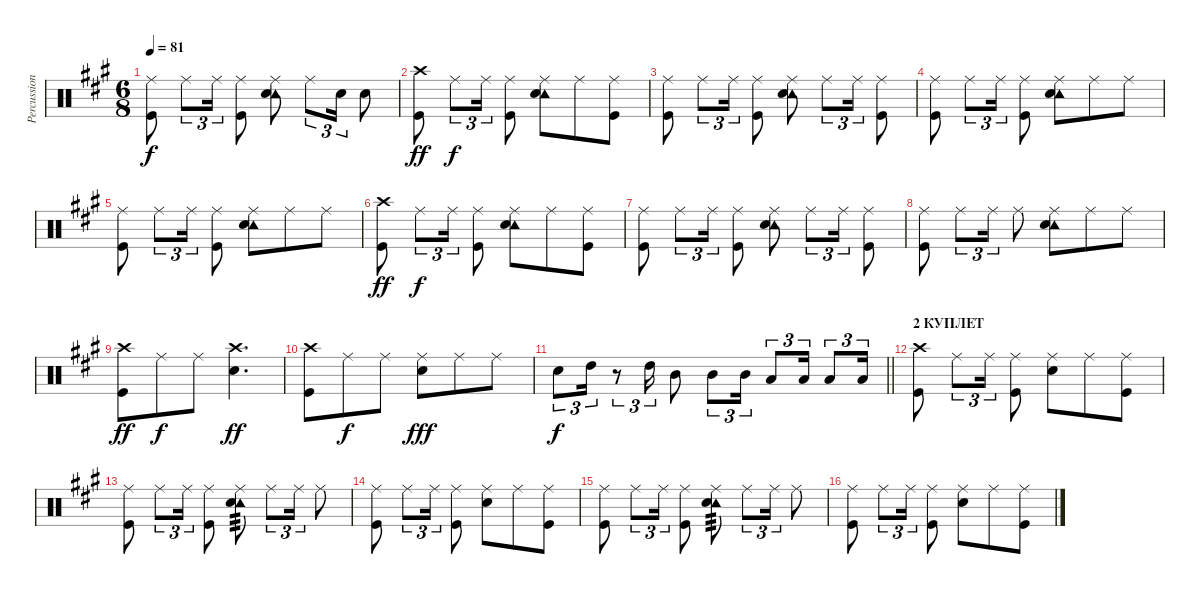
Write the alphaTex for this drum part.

\track ("Percussion" "Percussion") {instrument percussion}
\staff {score}
\articulation defaults
\ts (6 8)
\tempo 81
\clef neutral
\ks a
("Ride (middle)" "Kick (hit)").8{dy f} "Ride (middle)".8{tu (3 2)} "Ride (middle)".16{tu (3 2)} ("Ride (middle)" "Kick (hit)").8 ("Ride (middle)" "Tambourine (hit)" "Snare (hit) 2").8 "Ride (middle)".8{tu (3 2)} "Snare (hit) 2".16{tu (3 2)} "Snare (hit) 2".8 |
("Crash high (hit)" "Kick (hit)").8{dy ff} "Ride (middle)".8{tu (3 2) dy f} "Ride (middle)".16{tu (3 2)} ("Ride (middle)" "Kick (hit)").8 ("Ride (middle)" "Tambourine (hit)" "Snare (hit) 2").8 "Ride (middle)".8 ("Ride (middle)" "Kick (hit)").8 |
("Ride (middle)" "Kick (hit)").8 "Ride (middle)".8{tu (3 2)} "Ride (middle)".16{tu (3 2)} ("Ride (middle)" "Kick (hit)").8 ("Ride (middle)" "Tambourine (hit)" "Snare (hit) 2").8 "Ride (middle)".8{tu (3 2)} "Ride (middle)".16{tu (3 2)} ("Ride (middle)" "Kick (hit)").8 |
("Ride (middle)" "Kick (hit)").8 "Ride (middle)".8{tu (3 2)} "Ride (middle)".16{tu (3 2)} ("Ride (middle)" "Kick (hit)").8 ("Ride (middle)" "Tambourine (hit)" "Snare (hit) 2").8 "Ride (middle)".8 "Ride (middle)".8 |
("Ride (middle)" "Kick (hit)").8 "Ride (middle)".8{tu (3 2)} "Ride (middle)".16{tu (3 2)} ("Ride (middle)" "Kick (hit)").8 ("Ride (middle)" "Tambourine (hit)" "Snare (hit) 2").8 "Ride (middle)".8 "Ride (middle)".8 |
("Crash high (hit)" "Kick (hit)").8{dy ff} "Ride (middle)".8{tu (3 2) dy f} "Ride (middle)".16{tu (3 2)} ("Ride (middle)" "Kick (hit)").8 ("Ride (middle)" "Tambourine (hit)" "Snare (hit) 2").8 "Ride (middle)".8 ("Ride (middle)" "Kick (hit)").8 |
("Ride (middle)" "Kick (hit)").8 "Ride (middle)".8{tu (3 2)} "Ride (middle)".16{tu (3 2)} ("Ride (middle)" "Kick (hit)").8 ("Ride (middle)" "Tambourine (hit)" "Snare (hit) 2").8 "Ride (middle)".8{tu (3 2)} "Ride (middle)".16{tu (3 2)} ("Ride (middle)" "Kick (hit)").8 |
("Ride (middle)" "Kick (hit)").8 "Ride (middle)".8{tu (3 2)} "Ride (middle)".16{tu (3 2)} "Ride (middle)".8 ("Ride (middle)" "Tambourine (hit)" "Snare (hit) 2").8 "Ride (middle)".8 "Ride (middle)".8 |
("Crash high (hit)" "Kick (hit)").8{dy ff} "Ride (middle)".8{dy f} "Ride (middle)".8 ("Crash high (hit)" "Snare (hit) 2").4{d dy ff} |
("Crash high (hit)" "Kick (hit)").8 "Ride (middle)".8{dy f} "Ride (middle)".8 ("Ride (middle)" "Snare (hit) 2").8{dy fff} "Ride (middle)".8 "Ride (middle)".8 |
\barLineRight lightlight "Snare (hit) 2".8{tu (3 2) dy f} "High Tom (hit)".16{tu (3 2)}
r.8{tu (3 2)} "High Tom (hit)".16{tu (3 2)} "Mid Tom (hit)".8 "Mid Tom (hit)".8{tu (3 2)} "Mid Tom (hit)".16{tu (3 2)} "Low Tom (hit)".8{tu (3 2)} "Low Tom (hit)".16{tu (3 2)} "Low Floor Tom (hit)".8{tu (3 2)} "Low Floor Tom (hit)".16{tu (3 2)} |
\section ("" "2 КУПЛЕТ")
("Crash high (hit)" "Kick (hit)").8 "Ride (middle)".8{tu (3 2)} "Ride (middle)".16{tu (3 2)} ("Ride (middle)" "Kick (hit)").8 ("Ride (middle)" "Snare (hit) 2").8 "Ride (middle)".8 ("Ride (middle)" "Kick (hit)").8 |
("Ride (middle)" "Kick (hit)").8 "Ride (middle)".8{tu (3 2)} "Ride (middle)".16{tu (3 2)} ("Ride (middle)" "Kick (hit)").8 ("Ride (middle)" "Tambourine (hit)" "Snare (hit) 2").8{tp 3} "Ride (middle)".8{tu (3 2)} "Ride (middle)".16{tu (3 2)} "Ride (middle)".8 |
("Ride (middle)" "Kick (hit)").8 "Ride (middle)".8{tu (3 2)} "Ride (middle)".16{tu (3 2)} ("Ride (middle)" "Kick (hit)").8 ("Ride (middle)" "Snare (hit) 2").8 "Ride (middle)".8 ("Ride (middle)" "Kick (hit)").8 |
("Ride (middle)" "Kick (hit)").8 "Ride (middle)".8{tu (3 2)} "Ride (middle)".16{tu (3 2)} ("Ride (middle)" "Kick (hit)").8 ("Ride (middle)" "Tambourine (hit)" "Snare (hit) 2").8{tp 3} "Ride (middle)".8{tu (3 2)} "Ride (middle)".16{tu (3 2)} "Ride (middle)".8 |
("Ride (middle)" "Kick (hit)").8 "Ride (middle)".8{tu (3 2)} "Ride (middle)".16{tu (3 2)} ("Ride (middle)" "Kick (hit)").8 ("Ride (middle)" "Snare (hit) 2").8 "Ride (middle)".8 ("Ride (middle)" "Kick (hit)").8
